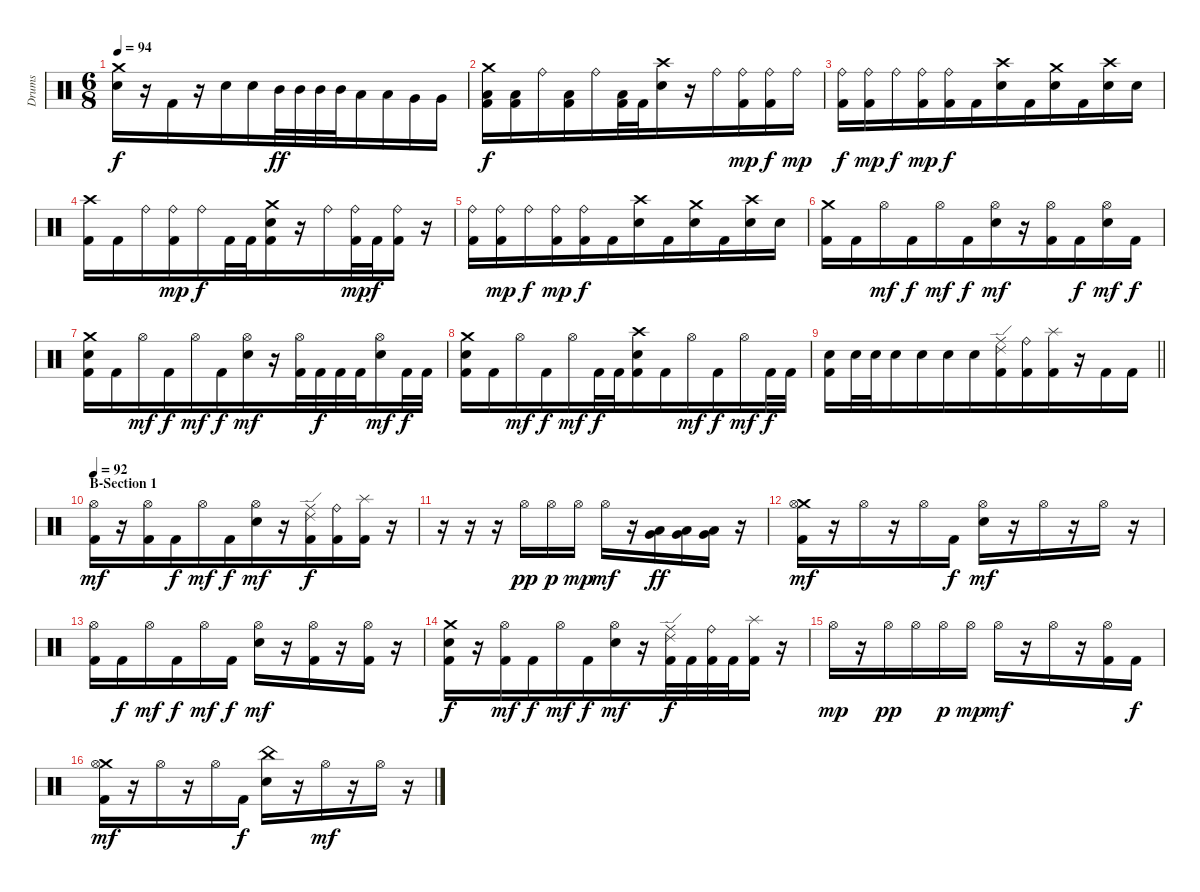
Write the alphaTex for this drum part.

\track ("Drums" "Drums") {instrument percussion}
\staff {score}
\articulation defaults
\ts (6 8)
\tempo 94
\clef neutral
\ks c
("Crash medium (hit)" "Snare (hit) 2").16{dy f beam merge} r.16{beam merge} "Kick (hit) 2".16{beam merge} r.16 "Snare (hit) 2".16{beam merge} "Snare (hit) 2".16{beam merge} "Mid Tom (hit)".32{dy ff} "Mid Tom (hit)".32{beam merge} "Mid Tom (hit)".32{beam merge} "Mid Tom (hit)".32 "Low Tom (hit)".16 "Low Tom (hit)".16 "Very Low Tom (hit)".16 "Very Low Tom (hit)".16 |
("Crash medium (hit)" "Low Floor Tom (hit)" "Kick (hit) 2").16{dy f beam merge} ("Low Floor Tom (hit)" "Kick (hit) 2").16{beam merge} "Ride (bell)".16{beam merge} ("Low Floor Tom (hit)" "Kick (hit) 2").16 "Ride (bell)".16{beam merge} ("Low Floor Tom (hit)" "Kick (hit) 2").32{beam merge} "Kick (hit) 2".32{beam merge} ("Crash high (hit)" "Snare (hit) 2").16 r.16 "Ride (bell)".16 ("Ride (bell)" "Kick (hit) 2").16{dy mp} ("Ride (bell)" "Kick (hit) 2").16{dy f} "Ride (bell)".16{dy mp} |
("Ride (bell)" "Kick (hit) 2").16{dy f beam merge} ("Ride (bell)" "Kick (hit) 2").16{dy mp beam merge} "Ride (bell)".16{dy f beam merge} ("Ride (bell)" "Kick (hit) 2").16{dy mp} ("Ride (bell)" "Kick (hit) 2").16{dy f} "Kick (hit) 2".16{beam merge} ("Crash high (hit)" "Snare (hit) 2").16 "Kick (hit) 2".16 ("Crash medium (hit)" "Snare (hit) 2").16 "Kick (hit) 2".16 ("Crash high (hit)" "Snare (hit) 2").16 "Snare (hit) 2".16 |
("Crash high (hit)" "Kick (hit) 2").16{beam merge} "Kick (hit) 2".16{beam merge} "Ride (bell)".16{beam merge} ("Ride (bell)" "Kick (hit) 2").16{dy mp} "Ride (bell)".16{dy f beam merge} "Kick (hit) 2".32{beam merge} "Kick (hit) 2".32{beam merge} ("Crash medium (hit)" "Snare (hit) 2" "Kick (hit) 2").16 r.16 "Ride (bell)".16 ("Ride (bell)" "Kick (hit) 2").32{dy mp} "Kick (hit) 2".32{dy f} ("Ride (bell)" "Kick (hit) 2").16 r.16 |
("Ride (bell)" "Kick (hit) 2").16{beam merge} ("Ride (bell)" "Kick (hit) 2").16{dy mp beam merge} "Ride (bell)".16{dy f beam merge} ("Ride (bell)" "Kick (hit) 2").16{dy mp} ("Ride (bell)" "Kick (hit) 2").16{dy f} "Kick (hit) 2".16{beam merge} ("Crash high (hit)" "Snare (hit) 2").16 "Kick (hit) 2".16 ("Crash medium (hit)" "Snare (hit) 2").16 "Kick (hit) 2".16 ("Crash high (hit)" "Snare (hit) 2").16 "Snare (hit) 2".16 |
("Crash medium (hit)" "Kick (hit) 2").16{beam merge} "Kick (hit) 2".16{beam merge} "Hi-Hat (open)".16{dy mf beam merge} "Kick (hit) 2".16{dy f} "Hi-Hat (open)".16{dy mf beam merge} "Kick (hit) 2".16{dy f beam merge} ("Hi-Hat (open)" "Snare (hit) 2").16{dy mf} r.16 ("Hi-Hat (open)" "Kick (hit) 2").16 "Kick (hit) 2".16{dy f} ("Hi-Hat (open)" "Snare (hit) 2").16{dy mf} "Kick (hit) 2".16{dy f} |
("Crash medium (hit)" "Snare (hit) 2" "Kick (hit) 2").16{beam merge} "Kick (hit) 2".16{beam merge} "Hi-Hat (open)".16{dy mf beam merge} "Kick (hit) 2".16{dy f} "Hi-Hat (open)".16{dy mf beam merge} "Kick (hit) 2".16{dy f beam merge} ("Hi-Hat (open)" "Snare (hit) 2").16{dy mf} r.16 ("Hi-Hat (open)" "Kick (hit) 2").32 "Kick (hit) 2".32{dy f} "Kick (hit) 2".32 "Kick (hit) 2".32 ("Hi-Hat (open)" "Snare (hit) 2").16{dy mf} "Kick (hit) 2".32{dy f} "Kick (hit) 2".32 |
("Crash medium (hit)" "Snare (hit) 2" "Kick (hit) 2").16{beam merge} "Kick (hit) 2".16{beam merge} "Hi-Hat (open)".16{dy mf beam merge} "Kick (hit) 2".16{dy f} "Hi-Hat (open)".16{dy mf} "Kick (hit) 2".32{dy f beam merge} "Kick (hit) 2".32{beam merge} ("Crash high (hit)" "Snare (hit) 2" "Kick (hit) 2").16 "Kick (hit) 2".16 "Hi-Hat (open)".16{dy mf} "Kick (hit) 2".16{dy f} "Hi-Hat (open)".16{dy mf} "Kick (hit) 2".32{dy f beam merge} "Kick (hit) 2".32 |
\barLineRight lightlight
("Snare (hit) 2" "Kick (hit) 2").16 "Snare (hit) 2".32 "Snare (hit) 2".32 "Snare (hit) 2".16 "Snare (hit) 2".16{beam merge} "Snare (hit) 2".16{beam merge} "Snare (hit) 2".16{beam merge} ("Ride (edge) 2" "Ride (middle)" "Kick (hit) 2").16{beam merge} ("Ride (bell)" "Kick (hit) 2").16{beam merge} ("Splash (hit)" "Kick (hit) 2").16{beam merge} r.16 "Kick (hit) 2".16{beam merge} "Kick (hit) 2".16 |
\section ("" "B-Section 1")
\tempo 92
("Hi-Hat (open)" "Kick (hit) 2").16{dy mf beam merge} r.16 ("Hi-Hat (open)" "Kick (hit) 2").16 "Kick (hit) 2".16{dy f beam merge} "Hi-Hat (open)".16{dy mf} "Kick (hit) 2".16{dy f beam merge} ("Hi-Hat (open)" "Snare (hit) 2").16{dy mf} r.16{beam merge} ("Ride (edge) 2" "Ride (middle)" "Kick (hit) 2").16{dy f beam merge} ("Ride (bell)" "Kick (hit) 2").16{beam merge} ("Splash (hit)" "Kick (hit) 2").16{beam merge} r.16 |
r.16 r.16{beam merge} r.16 "Hi-Hat (open)".16{dy pp beam merge} "Hi-Hat (open)".16{dy p} "Hi-Hat (open)".16{dy mp} "Hi-Hat (open)".16{dy mf} r.16{beam merge} ("Very Low Tom (hit)" "Low Floor Tom (hit)").16{dy ff} ("Very Low Tom (hit)" "Low Floor Tom (hit)").16 ("Very Low Tom (hit)" "Low Floor Tom (hit)").16{beam merge} r.16 |
("Crash medium (hit)" "Hi-Hat (open)" "Kick (hit) 2").16{dy mf beam merge} r.16 "Hi-Hat (open)".16{beam merge} r.16 "Hi-Hat (open)".16{beam merge} "Kick (hit) 2".16{dy f} ("Hi-Hat (open)" "Snare (hit) 2").16{dy mf beam merge} r.16 "Hi-Hat (open)".16{beam merge} r.16 "Hi-Hat (open)".16 r.16 |
("Hi-Hat (open)" "Kick (hit) 2").16{beam merge} "Kick (hit) 2".16{dy f} "Hi-Hat (open)".16{dy mf beam merge} "Kick (hit) 2".16{dy f} "Hi-Hat (open)".16{dy mf beam merge} "Kick (hit) 2".16{dy f} ("Hi-Hat (open)" "Snare (hit) 2").16{dy mf beam merge} r.16 ("Hi-Hat (open)" "Kick (hit) 2").16{beam merge} r.16 ("Hi-Hat (open)" "Kick (hit) 2").16 r.16 |
("Crash medium (hit)" "Snare (hit) 2" "Kick (hit) 2").16{dy f beam merge} r.16 ("Hi-Hat (open)" "Kick (hit) 2").16{dy mf} "Kick (hit) 2".16{dy f beam merge} "Hi-Hat (open)".16{dy mf} "Kick (hit) 2".16{dy f beam merge} ("Hi-Hat (open)" "Snare (hit) 2").16{dy mf} r.16{beam merge} ("Ride (edge) 2" "Ride (middle)" "Kick (hit) 2").32{dy f} "Kick (hit) 2".32{beam merge} ("Ride (bell)" "Kick (hit) 2").32 "Kick (hit) 2".32{beam merge} ("Splash (hit)" "Kick (hit) 2").16 r.16 |
"Hi-Hat (open)".16{dy mp} r.16{beam merge} "Hi-Hat (open)".16{dy pp} "Hi-Hat (open)".16{beam merge} "Hi-Hat (open)".16{dy p} "Hi-Hat (open)".16{dy mp} "Hi-Hat (open)".16{dy mf} r.16{beam merge} "Hi-Hat (open)".16 r.16 ("Hi-Hat (open)" "Kick (hit) 2").16{beam merge} "Kick (hit) 2".16{dy f} |
("Crash medium (hit)" "Hi-Hat (open)" "Kick (hit) 2").16{dy mf beam merge} r.16 "Hi-Hat (open)".16{beam merge} r.16 "Hi-Hat (open)".16{beam merge} "Kick (hit) 2".16{dy f} ("China (hit)" "Snare (hit) 2").16{beam merge} r.16 "Hi-Hat (open)".16{dy mf beam merge} r.16 "Hi-Hat (open)".16 r.16
